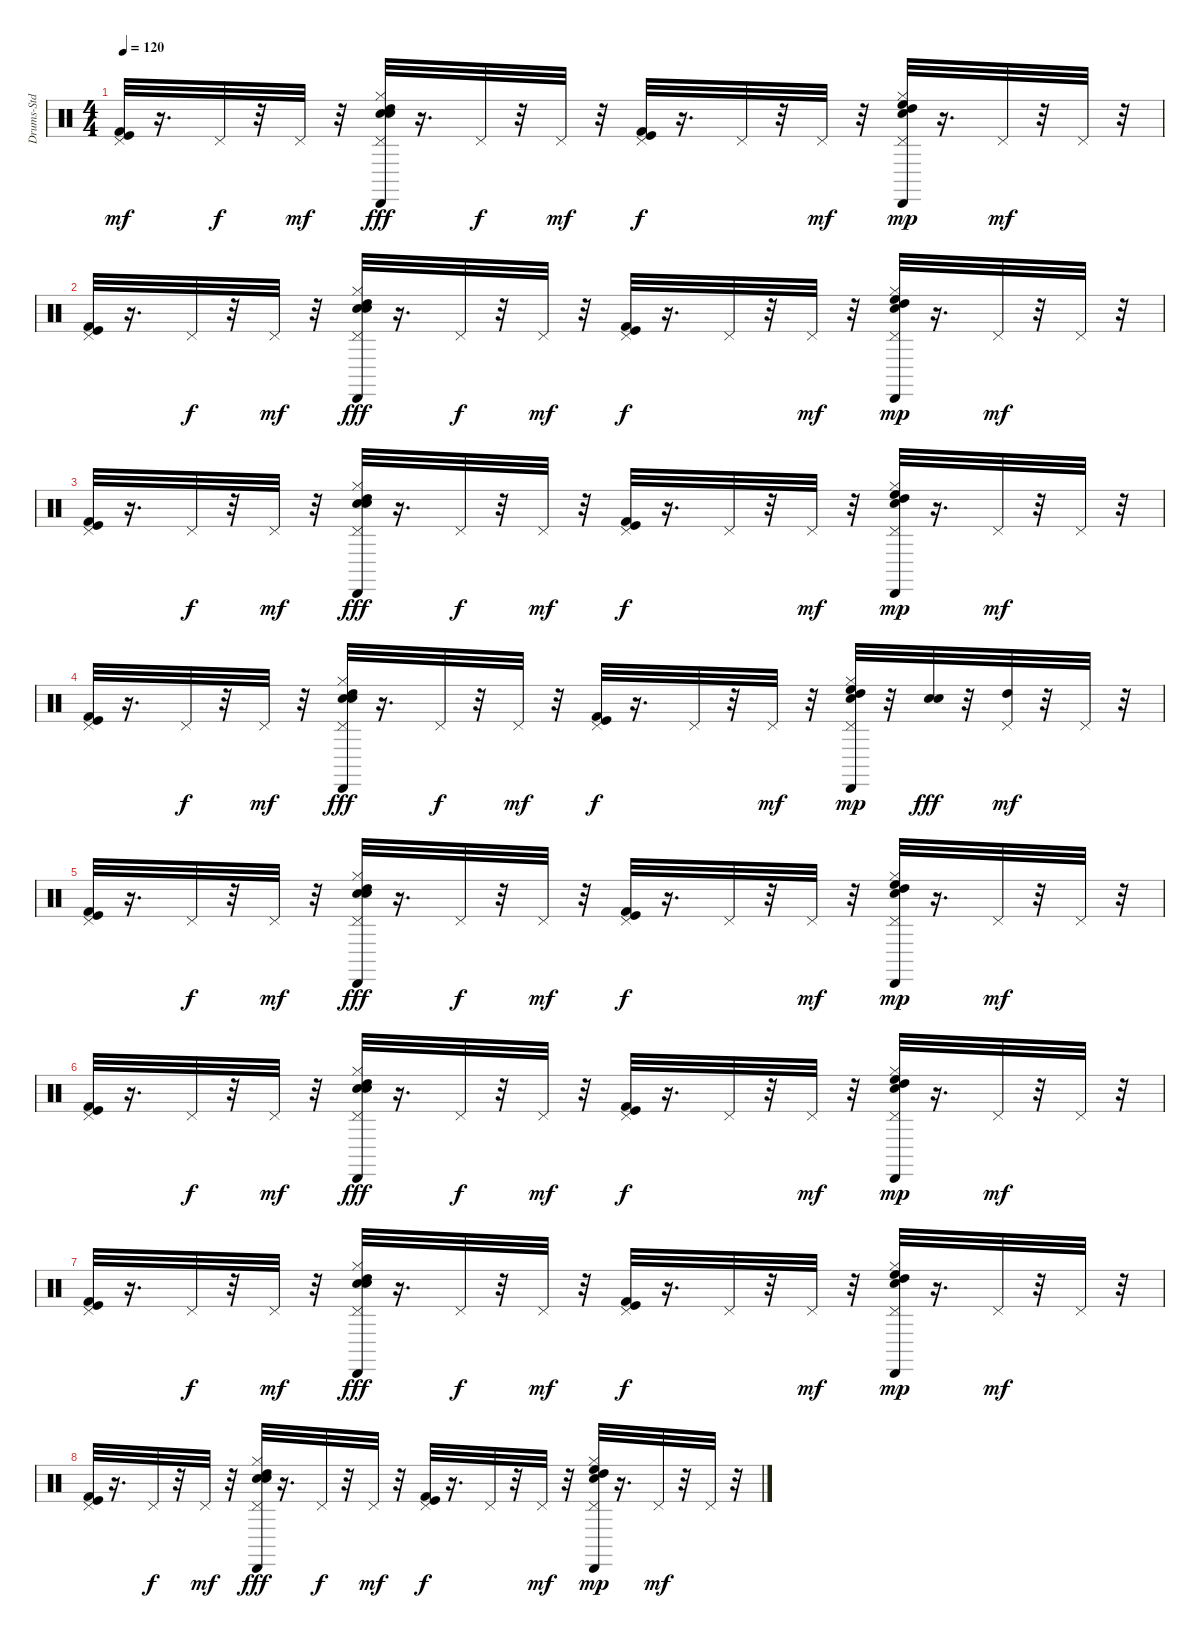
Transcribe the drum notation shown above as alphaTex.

\track ("Drums-Std" "Drums-Std") {instrument percussion}
\staff {score}
\articulation defaults
\ts (4 4)
\tempo 120
\clef neutral
\ks c
("Pedal Hi-Hat (hit)" "Kick (hit) 2" "Kick (hit)").32{dy mf} r.16{d} "Pedal Hi-Hat (hit)".32{dy f} r.32 "Pedal Hi-Hat (hit)".32{dy mf} r.32 ("Snare (hit) 2" "High Tom (hit)" "Cabasa (hit)" "Hi-Hat (closed)" "Pedal Hi-Hat (hit)" "Electric Snare (hit)").32{dy fff} r.16{d} "Pedal Hi-Hat (hit)".32{dy f} r.32 "Pedal Hi-Hat (hit)".32{dy mf} r.32 ("Pedal Hi-Hat (hit)" "Kick (hit) 2" "Kick (hit)").32{dy f} r.16{d} "Pedal Hi-Hat (hit)".32 r.32 "Pedal Hi-Hat (hit)".32{dy mf} r.32 ("Snare (hit) 2" "High Floor Tom (hit)" "High Tom (hit)" "Cabasa (hit)" "Hi-Hat (closed)" "Pedal Hi-Hat (hit)").32{dy mp} r.16{d} "Pedal Hi-Hat (hit)".32{dy mf} r.32 "Pedal Hi-Hat (hit)".32 r.32 |
("Pedal Hi-Hat (hit)" "Kick (hit) 2" "Kick (hit)").32 r.16{d} "Pedal Hi-Hat (hit)".32{dy f} r.32 "Pedal Hi-Hat (hit)".32{dy mf} r.32 ("Snare (hit) 2" "High Tom (hit)" "Cabasa (hit)" "Hi-Hat (closed)" "Pedal Hi-Hat (hit)" "Electric Snare (hit)").32{dy fff} r.16{d} "Pedal Hi-Hat (hit)".32{dy f} r.32 "Pedal Hi-Hat (hit)".32{dy mf} r.32 ("Pedal Hi-Hat (hit)" "Kick (hit) 2" "Kick (hit)").32{dy f} r.16{d} "Pedal Hi-Hat (hit)".32 r.32 "Pedal Hi-Hat (hit)".32{dy mf} r.32 ("Snare (hit) 2" "High Floor Tom (hit)" "High Tom (hit)" "Cabasa (hit)" "Hi-Hat (closed)" "Pedal Hi-Hat (hit)").32{dy mp} r.16{d} "Pedal Hi-Hat (hit)".32{dy mf} r.32 "Pedal Hi-Hat (hit)".32 r.32 |
("Pedal Hi-Hat (hit)" "Kick (hit) 2" "Kick (hit)").32 r.16{d} "Pedal Hi-Hat (hit)".32{dy f} r.32 "Pedal Hi-Hat (hit)".32{dy mf} r.32 ("Snare (hit) 2" "High Tom (hit)" "Cabasa (hit)" "Hi-Hat (closed)" "Pedal Hi-Hat (hit)" "Electric Snare (hit)").32{dy fff} r.16{d} "Pedal Hi-Hat (hit)".32{dy f} r.32 "Pedal Hi-Hat (hit)".32{dy mf} r.32 ("Pedal Hi-Hat (hit)" "Kick (hit) 2" "Kick (hit)").32{dy f} r.16{d} "Pedal Hi-Hat (hit)".32 r.32 "Pedal Hi-Hat (hit)".32{dy mf} r.32 ("Snare (hit) 2" "High Floor Tom (hit)" "High Tom (hit)" "Cabasa (hit)" "Hi-Hat (closed)" "Pedal Hi-Hat (hit)").32{dy mp} r.16{d} "Pedal Hi-Hat (hit)".32{dy mf} r.32 "Pedal Hi-Hat (hit)".32 r.32 |
("Pedal Hi-Hat (hit)" "Kick (hit) 2" "Kick (hit)").32 r.16{d} "Pedal Hi-Hat (hit)".32{dy f} r.32 "Pedal Hi-Hat (hit)".32{dy mf} r.32 ("Snare (hit) 2" "High Tom (hit)" "Cabasa (hit)" "Hi-Hat (closed)" "Pedal Hi-Hat (hit)" "Electric Snare (hit)").32{dy fff} r.16{d} "Pedal Hi-Hat (hit)".32{dy f} r.32 "Pedal Hi-Hat (hit)".32{dy mf} r.32 ("Pedal Hi-Hat (hit)" "Kick (hit) 2" "Kick (hit)").32{dy f} r.16{d} "Pedal Hi-Hat (hit)".32 r.32 "Pedal Hi-Hat (hit)".32{dy mf} r.32 ("Snare (hit) 2" "High Floor Tom (hit)" "High Tom (hit)" "Cabasa (hit)" "Hi-Hat (closed)" "Pedal Hi-Hat (hit)").32{dy mp} r.32 ("Snare (hit) 2" "Electric Snare (hit)").32{dy fff} r.32 ("High Tom (hit)" "Pedal Hi-Hat (hit)").32{dy mf} r.32 "Pedal Hi-Hat (hit)".32 r.32 |
("Pedal Hi-Hat (hit)" "Kick (hit) 2" "Kick (hit)").32 r.16{d} "Pedal Hi-Hat (hit)".32{dy f} r.32 "Pedal Hi-Hat (hit)".32{dy mf} r.32 ("Snare (hit) 2" "High Tom (hit)" "Cabasa (hit)" "Hi-Hat (closed)" "Pedal Hi-Hat (hit)" "Electric Snare (hit)").32{dy fff} r.16{d} "Pedal Hi-Hat (hit)".32{dy f} r.32 "Pedal Hi-Hat (hit)".32{dy mf} r.32 ("Pedal Hi-Hat (hit)" "Kick (hit) 2" "Kick (hit)").32{dy f} r.16{d} "Pedal Hi-Hat (hit)".32 r.32 "Pedal Hi-Hat (hit)".32{dy mf} r.32 ("Snare (hit) 2" "High Floor Tom (hit)" "High Tom (hit)" "Cabasa (hit)" "Hi-Hat (closed)" "Pedal Hi-Hat (hit)").32{dy mp} r.16{d} "Pedal Hi-Hat (hit)".32{dy mf} r.32 "Pedal Hi-Hat (hit)".32 r.32 |
("Pedal Hi-Hat (hit)" "Kick (hit) 2" "Kick (hit)").32 r.16{d} "Pedal Hi-Hat (hit)".32{dy f} r.32 "Pedal Hi-Hat (hit)".32{dy mf} r.32 ("Snare (hit) 2" "High Tom (hit)" "Cabasa (hit)" "Hi-Hat (closed)" "Pedal Hi-Hat (hit)" "Electric Snare (hit)").32{dy fff} r.16{d} "Pedal Hi-Hat (hit)".32{dy f} r.32 "Pedal Hi-Hat (hit)".32{dy mf} r.32 ("Pedal Hi-Hat (hit)" "Kick (hit) 2" "Kick (hit)").32{dy f} r.16{d} "Pedal Hi-Hat (hit)".32 r.32 "Pedal Hi-Hat (hit)".32{dy mf} r.32 ("Snare (hit) 2" "High Floor Tom (hit)" "High Tom (hit)" "Cabasa (hit)" "Hi-Hat (closed)" "Pedal Hi-Hat (hit)").32{dy mp} r.16{d} "Pedal Hi-Hat (hit)".32{dy mf} r.32 "Pedal Hi-Hat (hit)".32 r.32 |
("Pedal Hi-Hat (hit)" "Kick (hit) 2" "Kick (hit)").32 r.16{d} "Pedal Hi-Hat (hit)".32{dy f} r.32 "Pedal Hi-Hat (hit)".32{dy mf} r.32 ("Snare (hit) 2" "High Tom (hit)" "Cabasa (hit)" "Hi-Hat (closed)" "Pedal Hi-Hat (hit)" "Electric Snare (hit)").32{dy fff} r.16{d} "Pedal Hi-Hat (hit)".32{dy f} r.32 "Pedal Hi-Hat (hit)".32{dy mf} r.32 ("Pedal Hi-Hat (hit)" "Kick (hit) 2" "Kick (hit)").32{dy f} r.16{d} "Pedal Hi-Hat (hit)".32 r.32 "Pedal Hi-Hat (hit)".32{dy mf} r.32 ("Snare (hit) 2" "High Floor Tom (hit)" "High Tom (hit)" "Cabasa (hit)" "Hi-Hat (closed)" "Pedal Hi-Hat (hit)").32{dy mp} r.16{d} "Pedal Hi-Hat (hit)".32{dy mf} r.32 "Pedal Hi-Hat (hit)".32 r.32 |
("Pedal Hi-Hat (hit)" "Kick (hit) 2" "Kick (hit)").32 r.16{d} "Pedal Hi-Hat (hit)".32{dy f} r.32 "Pedal Hi-Hat (hit)".32{dy mf} r.32 ("Snare (hit) 2" "High Tom (hit)" "Cabasa (hit)" "Hi-Hat (closed)" "Pedal Hi-Hat (hit)" "Electric Snare (hit)").32{dy fff} r.16{d} "Pedal Hi-Hat (hit)".32{dy f} r.32 "Pedal Hi-Hat (hit)".32{dy mf} r.32 ("Pedal Hi-Hat (hit)" "Kick (hit) 2" "Kick (hit)").32{dy f} r.16{d} "Pedal Hi-Hat (hit)".32 r.32 "Pedal Hi-Hat (hit)".32{dy mf} r.32 ("Snare (hit) 2" "High Floor Tom (hit)" "High Tom (hit)" "Cabasa (hit)" "Hi-Hat (closed)" "Pedal Hi-Hat (hit)").32{dy mp} r.16{d} "Pedal Hi-Hat (hit)".32{dy mf} r.32 "Pedal Hi-Hat (hit)".32 r.32
